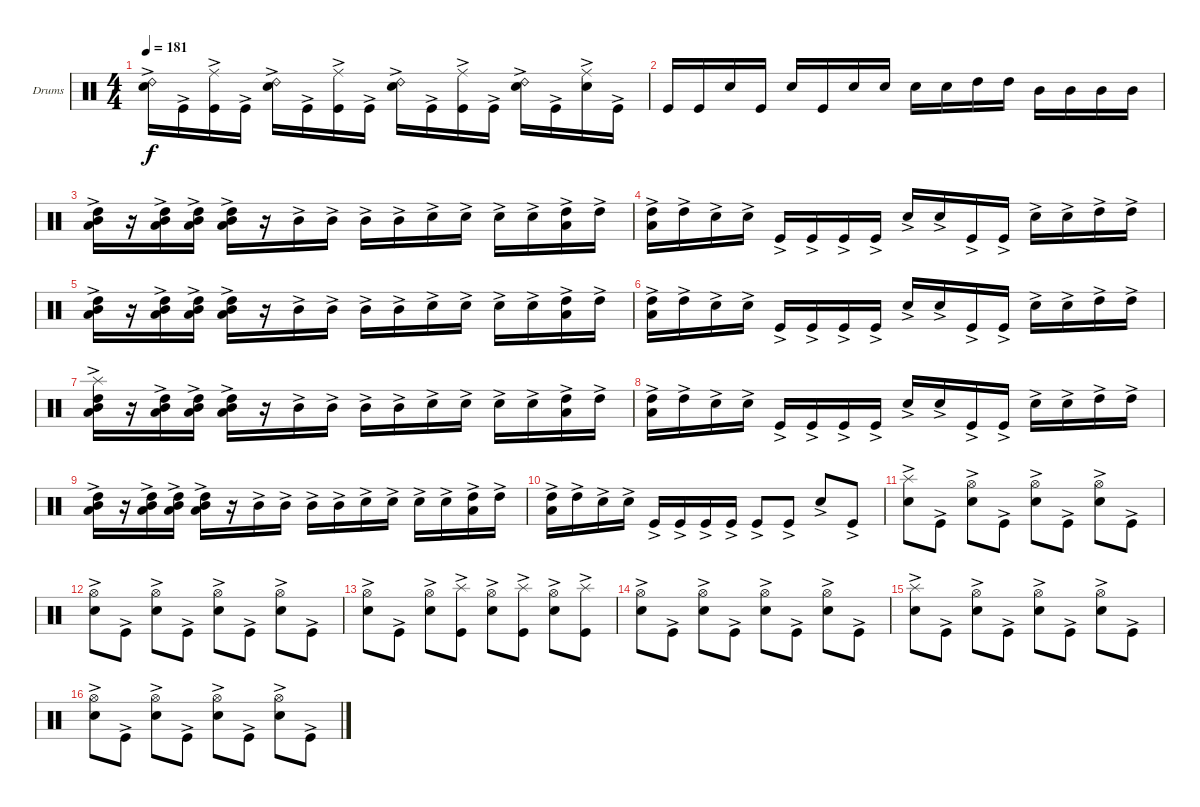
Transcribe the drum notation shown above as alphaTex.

\bracketExtendMode groupsimilarinstruments
\firstSystemTrackNameOrientation horizontal
\otherSystemsTrackNameOrientation horizontal
\track ("Drumkit" "Drums") {instrument percussion}
\staff {score}
\articulation defaults
\ts (4 4)
\tempo 181
\clef neutral
\ks c
("Snare (hit) 2"{ac} "Ride (bell) 2"{ac}).16{dy f} "Kick (hit)"{ac}.16 ("Kick (hit)"{ac} "Ride (middle)"{ac}).16 "Kick (hit)"{ac}.16 ("Snare (hit) 2"{ac} "Ride (bell) 2"{ac}).16 "Kick (hit)"{ac}.16 ("Kick (hit)"{ac} "Ride (middle)"{ac}).16 "Kick (hit)"{ac}.16 ("Snare (hit) 2"{ac} "Ride (bell) 2"{ac}).16 "Kick (hit)"{ac}.16 ("Kick (hit)"{ac} "Ride (middle)"{ac}).16 "Kick (hit)"{ac}.16 ("Snare (hit) 2"{ac} "Ride (bell) 2"{ac}).16 "Kick (hit)"{ac}.16 ("Ride (middle)"{ac} "Snare (hit) 2"{ac}).16 "Kick (hit)"{ac}.16 |
"Kick (hit)".16 "Kick (hit)".16 "Snare (hit) 2".16 "Kick (hit)".16 "Snare (hit) 2".16 "Kick (hit)".16 "Snare (hit) 2".16 "Snare (hit) 2".16 "Snare (hit) 2".16 "Snare (hit) 2".16 "High Tom (hit)".16 "High Tom (hit)".16 "Mid Tom (hit)".16 "Mid Tom (hit)".16 "Mid Tom (hit)".16 "Mid Tom (hit)".16 |
("Mid Tom (hit)"{ac} "High Tom (hit)"{ac} "Low Tom (hit)"{ac}).16 r.16 ("Mid Tom (hit)"{ac} "High Tom (hit)"{ac} "Low Tom (hit)"{ac}).16 ("Mid Tom (hit)"{ac} "High Tom (hit)"{ac} "Low Tom (hit)"{ac}).16 ("Mid Tom (hit)"{ac} "High Tom (hit)"{ac} "Low Tom (hit)"{ac}).16 r.16 "Mid Tom (hit)"{ac}.16 "Mid Tom (hit)"{ac}.16 "Mid Tom (hit)"{ac}.16 "Mid Tom (hit)"{ac}.16 "Snare (hit) 2"{ac}.16 "Snare (hit) 2"{ac}.16 "Snare (hit) 2"{ac}.16 "Snare (hit) 2"{ac}.16 ("Low Tom (hit)"{ac} "High Tom (hit)"{ac}).16 "High Tom (hit)"{ac}.16 |
("Low Tom (hit)"{ac} "High Tom (hit)"{ac}).16 "High Tom (hit)"{ac}.16 "Snare (hit) 2"{ac}.16 "Snare (hit) 2"{ac}.16 "Kick (hit)"{ac}.16 "Kick (hit)"{ac}.16 "Kick (hit)"{ac}.16 "Kick (hit)"{ac}.16 "Snare (hit) 2"{ac}.16 "Snare (hit) 2"{ac}.16 "Kick (hit)"{ac}.16 "Kick (hit)"{ac}.16 "Snare (hit) 2"{ac}.16 "Snare (hit) 2"{ac}.16 "High Tom (hit)"{ac}.16 "High Tom (hit)"{ac}.16 |
("Mid Tom (hit)"{ac} "High Tom (hit)"{ac} "Low Tom (hit)"{ac}).16 r.16 ("Mid Tom (hit)"{ac} "High Tom (hit)"{ac} "Low Tom (hit)"{ac}).16 ("Mid Tom (hit)"{ac} "High Tom (hit)"{ac} "Low Tom (hit)"{ac}).16 ("Mid Tom (hit)"{ac} "High Tom (hit)"{ac} "Low Tom (hit)"{ac}).16 r.16 "Mid Tom (hit)"{ac}.16 "Mid Tom (hit)"{ac}.16 "Mid Tom (hit)"{ac}.16 "Mid Tom (hit)"{ac}.16 "Snare (hit) 2"{ac}.16 "Snare (hit) 2"{ac}.16 "Snare (hit) 2"{ac}.16 "Snare (hit) 2"{ac}.16 ("Low Tom (hit)"{ac} "High Tom (hit)"{ac}).16 "High Tom (hit)"{ac}.16 |
("Low Tom (hit)"{ac} "High Tom (hit)"{ac}).16 "High Tom (hit)"{ac}.16 "Snare (hit) 2"{ac}.16 "Snare (hit) 2"{ac}.16 "Kick (hit)"{ac}.16 "Kick (hit)"{ac}.16 "Kick (hit)"{ac}.16 "Kick (hit)"{ac}.16 "Snare (hit) 2"{ac}.16 "Snare (hit) 2"{ac}.16 "Kick (hit)"{ac}.16 "Kick (hit)"{ac}.16 "Snare (hit) 2"{ac}.16 "Snare (hit) 2"{ac}.16 "High Tom (hit)"{ac}.16 "High Tom (hit)"{ac}.16 |
("Mid Tom (hit)"{ac} "High Tom (hit)"{ac} "Low Tom (hit)"{ac} "Splash (hit)"{ac}).16 r.16 ("Mid Tom (hit)"{ac} "High Tom (hit)"{ac} "Low Tom (hit)"{ac}).16 ("Mid Tom (hit)"{ac} "High Tom (hit)"{ac} "Low Tom (hit)"{ac}).16 ("Mid Tom (hit)"{ac} "High Tom (hit)"{ac} "Low Tom (hit)"{ac}).16 r.16 "Mid Tom (hit)"{ac}.16 "Mid Tom (hit)"{ac}.16 "Mid Tom (hit)"{ac}.16 "Mid Tom (hit)"{ac}.16 "Snare (hit) 2"{ac}.16 "Snare (hit) 2"{ac}.16 "Snare (hit) 2"{ac}.16 "Snare (hit) 2"{ac}.16 ("Low Tom (hit)"{ac} "High Tom (hit)"{ac}).16 "High Tom (hit)"{ac}.16 |
("Low Tom (hit)"{ac} "High Tom (hit)"{ac}).16 "High Tom (hit)"{ac}.16 "Snare (hit) 2"{ac}.16 "Snare (hit) 2"{ac}.16 "Kick (hit)"{ac}.16 "Kick (hit)"{ac}.16 "Kick (hit)"{ac}.16 "Kick (hit)"{ac}.16 "Snare (hit) 2"{ac}.16 "Snare (hit) 2"{ac}.16 "Kick (hit)"{ac}.16 "Kick (hit)"{ac}.16 "Snare (hit) 2"{ac}.16 "Snare (hit) 2"{ac}.16 "High Tom (hit)"{ac}.16 "High Tom (hit)"{ac}.16 |
("Mid Tom (hit)"{ac} "High Tom (hit)"{ac} "Low Tom (hit)"{ac}).16 r.16 ("Mid Tom (hit)"{ac} "High Tom (hit)"{ac} "Low Tom (hit)"{ac}).16 ("Mid Tom (hit)"{ac} "High Tom (hit)"{ac} "Low Tom (hit)"{ac}).16 ("Mid Tom (hit)"{ac} "High Tom (hit)"{ac} "Low Tom (hit)"{ac}).16 r.16 "Mid Tom (hit)"{ac}.16 "Mid Tom (hit)"{ac}.16 "Mid Tom (hit)"{ac}.16 "Mid Tom (hit)"{ac}.16 "Snare (hit) 2"{ac}.16 "Snare (hit) 2"{ac}.16 "Snare (hit) 2"{ac}.16 "Snare (hit) 2"{ac}.16 ("Low Tom (hit)"{ac} "High Tom (hit)"{ac}).16 "High Tom (hit)"{ac}.16 |
("Low Tom (hit)"{ac} "High Tom (hit)"{ac}).16 "High Tom (hit)"{ac}.16 "Snare (hit) 2"{ac}.16 "Snare (hit) 2"{ac}.16 "Kick (hit)"{ac}.16 "Kick (hit)"{ac}.16 "Kick (hit)"{ac}.16 "Kick (hit)"{ac}.16 "Kick (hit)"{ac}.8 "Kick (hit)"{ac}.8 "Snare (hit) 2"{ac}.8 "Kick (hit)"{ac}.8 |
("Snare (hit) 2"{ac} "Splash (hit)"{ac}).8 "Kick (hit)"{ac}.8 ("Snare (hit) 2"{ac} "Hi-Hat (open)"{ac}).8 "Kick (hit)"{ac}.8 ("Snare (hit) 2"{ac} "Hi-Hat (open)"{ac}).8 "Kick (hit)"{ac}.8 ("Snare (hit) 2"{ac} "Hi-Hat (open)"{ac}).8 "Kick (hit)"{ac}.8 |
("Snare (hit) 2"{ac} "Hi-Hat (open)"{ac}).8 "Kick (hit)"{ac}.8 ("Snare (hit) 2"{ac} "Hi-Hat (open)"{ac}).8 "Kick (hit)"{ac}.8 ("Snare (hit) 2"{ac} "Hi-Hat (open)"{ac}).8 "Kick (hit)"{ac}.8 ("Snare (hit) 2"{ac} "Hi-Hat (open)"{ac}).8 "Kick (hit)"{ac}.8 |
("Snare (hit) 2"{ac} "Hi-Hat (open)"{ac}).8 "Kick (hit)"{ac}.8 ("Snare (hit) 2"{ac} "Hi-Hat (open)"{ac}).8 ("Kick (hit)"{ac} "Splash (hit)"{ac}).8 ("Snare (hit) 2"{ac} "Hi-Hat (open)"{ac}).8 ("Kick (hit)"{ac} "Splash (hit)"{ac}).8 ("Snare (hit) 2"{ac} "Hi-Hat (open)"{ac}).8 ("Kick (hit)"{ac} "Splash (hit)"{ac}).8 |
("Snare (hit) 2"{ac} "Hi-Hat (open)"{ac}).8 "Kick (hit)"{ac}.8 ("Snare (hit) 2"{ac} "Hi-Hat (open)"{ac}).8 "Kick (hit)"{ac}.8 ("Snare (hit) 2"{ac} "Hi-Hat (open)"{ac}).8 "Kick (hit)"{ac}.8 ("Snare (hit) 2"{ac} "Hi-Hat (open)"{ac}).8 "Kick (hit)"{ac}.8 |
("Snare (hit) 2"{ac} "Splash (hit)"{ac}).8 "Kick (hit)"{ac}.8 ("Snare (hit) 2"{ac} "Hi-Hat (open)"{ac}).8 "Kick (hit)"{ac}.8 ("Snare (hit) 2"{ac} "Hi-Hat (open)"{ac}).8 "Kick (hit)"{ac}.8 ("Snare (hit) 2"{ac} "Hi-Hat (open)"{ac}).8 "Kick (hit)"{ac}.8 |
("Snare (hit) 2"{ac} "Hi-Hat (open)"{ac}).8 "Kick (hit)"{ac}.8 ("Snare (hit) 2"{ac} "Hi-Hat (open)"{ac}).8 "Kick (hit)"{ac}.8 ("Snare (hit) 2"{ac} "Hi-Hat (open)"{ac}).8 "Kick (hit)"{ac}.8 ("Snare (hit) 2"{ac} "Hi-Hat (open)"{ac}).8 "Kick (hit)"{ac}.8
